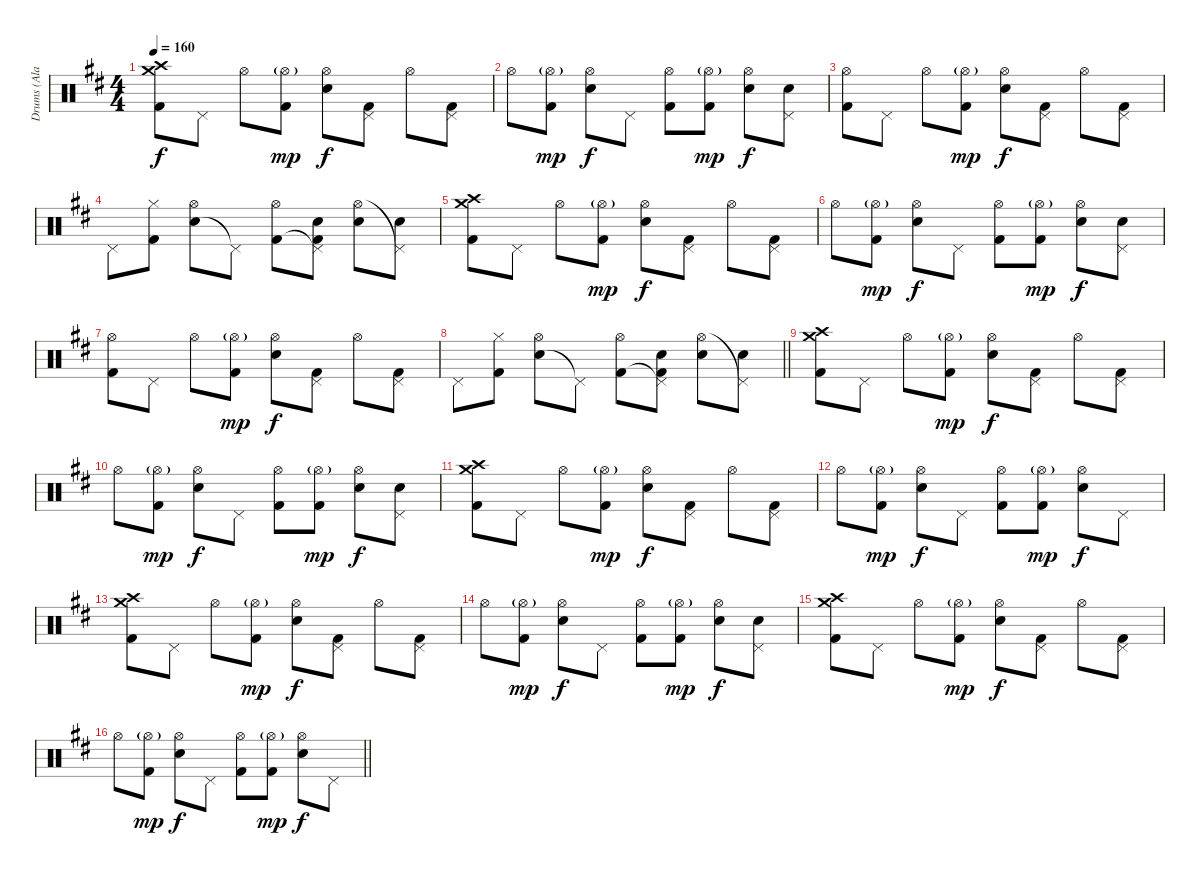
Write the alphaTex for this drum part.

\track ("Drums (Ala Pyle)" "Drums (Ala") {instrument percussion}
\staff {score}
\articulation defaults
\ts (4 4)
\tempo 160
\clef neutral
\ks d
("Crash medium (hit)" "Crash high (hit)" "Kick (hit) 2").8{dy f} "Pedal Hi-Hat (hit)".8 "Hi-Hat (open)".8 ("Hi-Hat (open)"{g} "Kick (hit) 2").8{dy mp} ("Snare (hit) 2" "Hi-Hat (open)").8{dy f} ("Pedal Hi-Hat (hit)" "Kick (hit) 2").8 "Hi-Hat (open)".8 ("Pedal Hi-Hat (hit)" "Kick (hit) 2").8 |
"Hi-Hat (open)".8 ("Hi-Hat (open)"{g} "Kick (hit) 2").8{dy mp} ("Snare (hit) 2" "Hi-Hat (open)").8{dy f} "Pedal Hi-Hat (hit)".8 ("Hi-Hat (open)" "Kick (hit) 2").8 ("Hi-Hat (open)"{g} "Kick (hit) 2").8{dy mp} ("Snare (hit) 2" "Hi-Hat (open)").8{dy f} ("Snare (hit) 2" "Pedal Hi-Hat (hit)").8 |
("Hi-Hat (open)" "Kick (hit) 2").8 "Pedal Hi-Hat (hit)".8 "Hi-Hat (open)".8 ("Hi-Hat (open)"{g} "Kick (hit) 2").8{dy mp} ("Snare (hit) 2" "Hi-Hat (open)").8{dy f} ("Pedal Hi-Hat (hit)" "Kick (hit) 2").8 "Hi-Hat (open)".8 ("Pedal Hi-Hat (hit)" "Kick (hit) 2").8 |
"Pedal Hi-Hat (hit)".8 ("Hi-Hat (closed)" "Kick (hit) 2").8 ("Snare (hit) 2" "Hi-Hat (open)").8 "Pedal Hi-Hat (hit)"{t}.8 ("Hi-Hat (open)" "Kick (hit) 2").8 ("Snare (hit) 2" "Pedal Hi-Hat (hit)"{t} "Kick (hit) 2").8 ("Snare (hit) 2" "Hi-Hat (open)").8 ("Snare (hit) 2" "Pedal Hi-Hat (hit)"{t}).8 |
("Crash medium (hit)" "Crash high (hit)" "Kick (hit) 2").8 "Pedal Hi-Hat (hit)".8 "Hi-Hat (open)".8 ("Hi-Hat (open)"{g} "Kick (hit) 2").8{dy mp} ("Snare (hit) 2" "Hi-Hat (open)").8{dy f} ("Pedal Hi-Hat (hit)" "Kick (hit) 2").8 "Hi-Hat (open)".8 ("Pedal Hi-Hat (hit)" "Kick (hit) 2").8 |
"Hi-Hat (open)".8 ("Hi-Hat (open)"{g} "Kick (hit) 2").8{dy mp} ("Snare (hit) 2" "Hi-Hat (open)").8{dy f} "Pedal Hi-Hat (hit)".8 ("Hi-Hat (open)" "Kick (hit) 2").8 ("Hi-Hat (open)"{g} "Kick (hit) 2").8{dy mp} ("Snare (hit) 2" "Hi-Hat (open)").8{dy f} ("Snare (hit) 2" "Pedal Hi-Hat (hit)").8 |
("Hi-Hat (open)" "Kick (hit) 2").8 "Pedal Hi-Hat (hit)".8 "Hi-Hat (open)".8 ("Hi-Hat (open)"{g} "Kick (hit) 2").8{dy mp} ("Snare (hit) 2" "Hi-Hat (open)").8{dy f} ("Pedal Hi-Hat (hit)" "Kick (hit) 2").8 "Hi-Hat (open)".8 ("Pedal Hi-Hat (hit)" "Kick (hit) 2").8 |
\barLineRight lightlight "Pedal Hi-Hat (hit)".8
("Hi-Hat (closed)" "Kick (hit) 2").8 ("Snare (hit) 2" "Hi-Hat (open)").8 "Pedal Hi-Hat (hit)"{t}.8 ("Hi-Hat (open)" "Kick (hit) 2").8 ("Snare (hit) 2" "Pedal Hi-Hat (hit)"{t} "Kick (hit) 2").8 ("Snare (hit) 2" "Hi-Hat (open)").8 ("Snare (hit) 2" "Pedal Hi-Hat (hit)"{t}).8 |
("Crash medium (hit)" "Crash high (hit)" "Kick (hit) 2").8 "Pedal Hi-Hat (hit)".8 "Hi-Hat (open)".8 ("Hi-Hat (open)"{g} "Kick (hit) 2").8{dy mp} ("Snare (hit) 2" "Hi-Hat (open)").8{dy f} ("Pedal Hi-Hat (hit)" "Kick (hit) 2").8 "Hi-Hat (open)".8 ("Pedal Hi-Hat (hit)" "Kick (hit) 2").8 |
"Hi-Hat (open)".8 ("Hi-Hat (open)"{g} "Kick (hit) 2").8{dy mp} ("Snare (hit) 2" "Hi-Hat (open)").8{dy f} "Pedal Hi-Hat (hit)".8 ("Hi-Hat (open)" "Kick (hit) 2").8 ("Hi-Hat (open)"{g} "Kick (hit) 2").8{dy mp} ("Snare (hit) 2" "Hi-Hat (open)").8{dy f} ("Snare (hit) 2" "Pedal Hi-Hat (hit)").8 |
("Crash medium (hit)" "Crash high (hit)" "Kick (hit) 2").8 "Pedal Hi-Hat (hit)".8 "Hi-Hat (open)".8 ("Hi-Hat (open)"{g} "Kick (hit) 2").8{dy mp} ("Snare (hit) 2" "Hi-Hat (open)").8{dy f} ("Pedal Hi-Hat (hit)" "Kick (hit) 2").8 "Hi-Hat (open)".8 ("Pedal Hi-Hat (hit)" "Kick (hit) 2").8 |
"Hi-Hat (open)".8 ("Hi-Hat (open)"{g} "Kick (hit) 2").8{dy mp} ("Snare (hit) 2" "Hi-Hat (open)").8{dy f} "Pedal Hi-Hat (hit)".8 ("Hi-Hat (open)" "Kick (hit) 2").8 ("Hi-Hat (open)"{g} "Kick (hit) 2").8{dy mp} ("Snare (hit) 2" "Hi-Hat (open)").8{dy f} "Pedal Hi-Hat (hit)".8 |
("Crash medium (hit)" "Crash high (hit)" "Kick (hit) 2").8 "Pedal Hi-Hat (hit)".8 "Hi-Hat (open)".8 ("Hi-Hat (open)"{g} "Kick (hit) 2").8{dy mp} ("Snare (hit) 2" "Hi-Hat (open)").8{dy f} ("Pedal Hi-Hat (hit)" "Kick (hit) 2").8 "Hi-Hat (open)".8 ("Pedal Hi-Hat (hit)" "Kick (hit) 2").8 |
"Hi-Hat (open)".8 ("Hi-Hat (open)"{g} "Kick (hit) 2").8{dy mp} ("Snare (hit) 2" "Hi-Hat (open)").8{dy f} "Pedal Hi-Hat (hit)".8 ("Hi-Hat (open)" "Kick (hit) 2").8 ("Hi-Hat (open)"{g} "Kick (hit) 2").8{dy mp} ("Snare (hit) 2" "Hi-Hat (open)").8{dy f} ("Snare (hit) 2" "Pedal Hi-Hat (hit)").8 |
("Crash medium (hit)" "Crash high (hit)" "Kick (hit) 2").8 "Pedal Hi-Hat (hit)".8 "Hi-Hat (open)".8 ("Hi-Hat (open)"{g} "Kick (hit) 2").8{dy mp} ("Snare (hit) 2" "Hi-Hat (open)").8{dy f} ("Pedal Hi-Hat (hit)" "Kick (hit) 2").8 "Hi-Hat (open)".8 ("Pedal Hi-Hat (hit)" "Kick (hit) 2").8 |
\barLineRight lightlight "Hi-Hat (open)".8
("Hi-Hat (open)"{g} "Kick (hit) 2").8{dy mp} ("Snare (hit) 2" "Hi-Hat (open)").8{dy f} "Pedal Hi-Hat (hit)".8 ("Hi-Hat (open)" "Kick (hit) 2").8 ("Hi-Hat (open)"{g} "Kick (hit) 2").8{dy mp} ("Snare (hit) 2" "Hi-Hat (open)").8{dy f} "Pedal Hi-Hat (hit)".8
